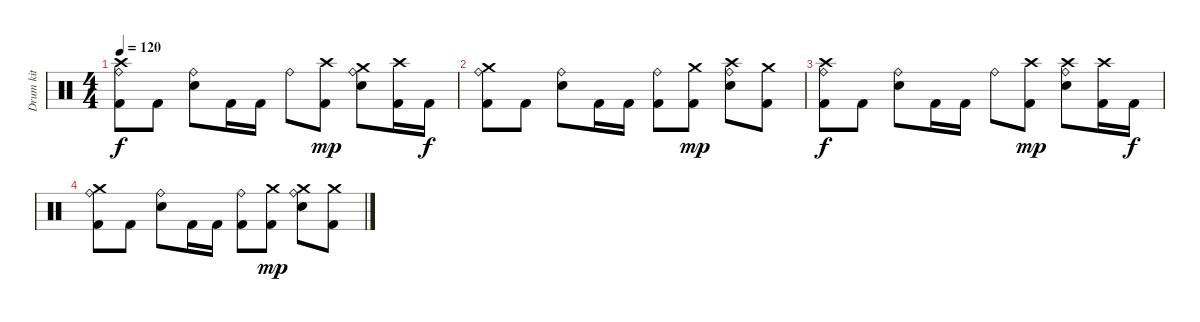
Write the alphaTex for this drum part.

\track ("Drum kit" "Drum kit") {instrument percussion}
\staff {score}
\articulation defaults
\ts (4 4)
\tempo 120
\clef neutral
\ks c
("Crash high (hit)" "Kick (hit) 2" "Ride (bell)").8{dy f} "Kick (hit) 2".8 ("Electric Snare (hit)" "Ride (bell)").8 "Kick (hit) 2".16 "Kick (hit) 2".16 "Ride (bell)".8 ("Crash high (hit)" "Kick (hit) 2").8{dy mp} ("Crash medium (hit)" "Electric Snare (hit)" "Ride (bell)").8 ("Crash high (hit)" "Kick (hit) 2").16 "Kick (hit) 2".16{dy f} |
("Crash medium (hit)" "Kick (hit) 2" "Ride (bell)").8 "Kick (hit) 2".8 ("Electric Snare (hit)" "Ride (bell)").8 "Kick (hit) 2".16 "Kick (hit) 2".16 ("Kick (hit) 2" "Ride (bell)").8 ("Crash medium (hit)" "Kick (hit) 2").8{dy mp} ("Crash high (hit)" "Electric Snare (hit)" "Ride (bell)").8 ("Crash medium (hit)" "Kick (hit) 2").8 |
("Crash high (hit)" "Kick (hit) 2" "Ride (bell)").8{dy f} "Kick (hit) 2".8 ("Electric Snare (hit)" "Ride (bell)").8 "Kick (hit) 2".16 "Kick (hit) 2".16 "Ride (bell)".8 ("Crash high (hit)" "Kick (hit) 2").8{dy mp} ("Crash high (hit)" "Electric Snare (hit)" "Ride (bell)").8 ("Crash high (hit)" "Kick (hit) 2").16 "Kick (hit) 2".16{dy f} |
("Crash medium (hit)" "Kick (hit) 2" "Ride (bell)").8 "Kick (hit) 2".8 ("Electric Snare (hit)" "Ride (bell)").8 "Kick (hit) 2".16 "Kick (hit) 2".16 ("Kick (hit) 2" "Ride (bell)").8 ("Crash medium (hit)" "Kick (hit) 2").8{dy mp} ("Crash medium (hit)" "Electric Snare (hit)" "Ride (bell)").8 ("Crash medium (hit)" "Kick (hit) 2").8
